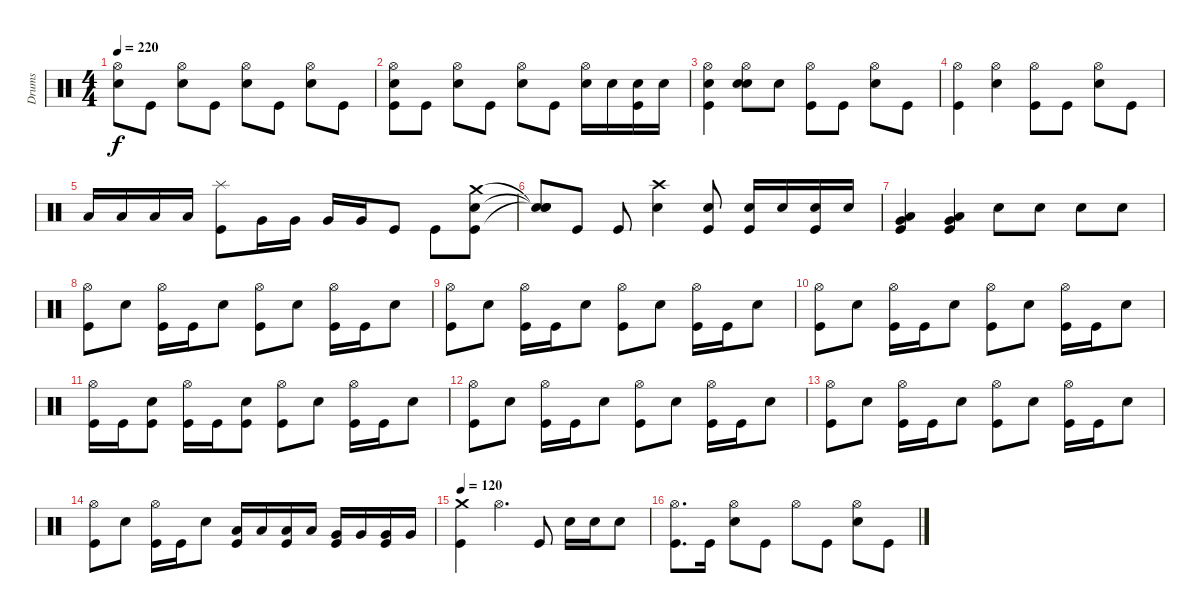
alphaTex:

\track ("Drums" "Drums") {instrument percussion}
\staff {score}
\articulation defaults
\ts (4 4)
\tempo 220
\clef neutral
\ks c
("Hi-Hat (open)" "Snare (hit) 2").8{dy f} "Kick (hit)".8 ("Hi-Hat (open)" "Snare (hit) 2").8 "Kick (hit)".8 ("Hi-Hat (open)" "Snare (hit) 2").8 "Kick (hit)".8 ("Hi-Hat (open)" "Snare (hit) 2").8 "Kick (hit)".8 |
("Hi-Hat (open)" "Snare (hit) 2" "Kick (hit)").8 "Kick (hit)".8 ("Hi-Hat (open)" "Snare (hit) 2").8 "Kick (hit)".8 ("Hi-Hat (open)" "Snare (hit) 2").8 "Kick (hit)".8 ("Hi-Hat (open)" "Snare (hit) 2").16 "Snare (hit) 2".16 ("Snare (hit) 2" "Kick (hit)").16 "Snare (hit) 2".16 |
("Hi-Hat (open)" "Hand Clap (hit)" "Kick (hit)").4 ("Hi-Hat (open)" "Snare (hit) 2" "Hand Clap (hit)").8 "Hand Clap (hit)".8 ("Hi-Hat (open)" "Kick (hit)").8 "Kick (hit)".8 ("Hi-Hat (open)" "Snare (hit) 2").8 "Kick (hit)".8 |
("Hi-Hat (open)" "Kick (hit)").4 ("Hi-Hat (open)" "Snare (hit) 2").4 ("Hi-Hat (open)" "Kick (hit)").8 "Kick (hit)".8 ("Hi-Hat (open)" "Snare (hit) 2").8 "Kick (hit)".8 |
"Low Tom (hit)".16 "Low Tom (hit)".16 "Low Tom (hit)".16 "Low Tom (hit)".16 ("Splash (hit)" "Kick (hit)").8 "Very Low Tom (hit)".16 "Very Low Tom (hit)".16 "Very Low Tom (hit)".16 "Very Low Tom (hit)".16 "Kick (hit)".8 "Kick (hit)".8 ("Crash medium (hit)" "Snare (hit) 2" "Kick (hit)").8 |
("Snare (hit)"{t} "Snare (hit)"{t} "Snare (hit)"{t}).8 "Kick (hit)".8 "Kick (hit)".8 ("Crash high (hit)" "Snare (hit) 2").4 ("Snare (hit) 2" "Kick (hit)").8 ("Snare (hit) 2" "Kick (hit)").16 "Snare (hit) 2".16 ("Snare (hit) 2" "Kick (hit)").16 "Snare (hit) 2".16 |
("Very Low Tom (hit)" "Low Floor Tom (hit)" "Kick (hit)").4 ("Very Low Tom (hit)" "Low Floor Tom (hit)" "Kick (hit)").4 "Snare (hit) 2".8 "Snare (hit) 2".8 "Snare (hit) 2".8 "Snare (hit) 2".8 |
("Hi-Hat (open)" "Kick (hit)").8 "Snare (hit) 2".8 ("Hi-Hat (open)" "Kick (hit)").16 "Kick (hit)".16 "Snare (hit) 2".8 ("Hi-Hat (open)" "Kick (hit)").8 "Snare (hit) 2".8 ("Hi-Hat (open)" "Kick (hit)").16 "Kick (hit)".16 "Snare (hit) 2".8 |
("Hi-Hat (open)" "Kick (hit)").8 "Snare (hit) 2".8 ("Hi-Hat (open)" "Kick (hit)").16 "Kick (hit)".16 "Snare (hit) 2".8 ("Hi-Hat (open)" "Kick (hit)").8 "Snare (hit) 2".8 ("Hi-Hat (open)" "Kick (hit)").16 "Kick (hit)".16 "Snare (hit) 2".8 |
("Hi-Hat (open)" "Kick (hit)").8 "Snare (hit) 2".8 ("Hi-Hat (open)" "Kick (hit)").16 "Kick (hit)".16 "Snare (hit) 2".8 ("Hi-Hat (open)" "Kick (hit)").8 "Snare (hit) 2".8 ("Hi-Hat (open)" "Kick (hit)").16 "Kick (hit)".16 "Snare (hit) 2".8 |
("Hi-Hat (open)" "Kick (hit)").16 "Kick (hit)".16 ("Snare (hit) 2" "Kick (hit)").8 ("Hi-Hat (open)" "Kick (hit)").16 "Kick (hit)".16 ("Snare (hit) 2" "Kick (hit)").8 ("Hi-Hat (open)" "Kick (hit)").8 "Snare (hit) 2".8 ("Hi-Hat (open)" "Kick (hit)").16 "Kick (hit)".16 "Snare (hit) 2".8 |
("Hi-Hat (open)" "Kick (hit)").8 "Snare (hit) 2".8 ("Hi-Hat (open)" "Kick (hit)").16 "Kick (hit)".16 "Snare (hit) 2".8 ("Hi-Hat (open)" "Kick (hit)").8 "Snare (hit) 2".8 ("Hi-Hat (open)" "Kick (hit)").16 "Kick (hit)".16 "Snare (hit) 2".8 |
("Hi-Hat (open)" "Kick (hit)").8 "Snare (hit) 2".8 ("Hi-Hat (open)" "Kick (hit)").16 "Kick (hit)".16 "Snare (hit) 2".8 ("Hi-Hat (open)" "Kick (hit)").8 "Snare (hit) 2".8 ("Hi-Hat (open)" "Kick (hit)").16 "Kick (hit)".16 "Snare (hit) 2".8 |
("Hi-Hat (open)" "Kick (hit)").8 "Snare (hit) 2".8 ("Hi-Hat (open)" "Kick (hit)").16 "Kick (hit)".16 "Snare (hit) 2".8 ("Low Tom (hit)" "Kick (hit)").16 "Low Tom (hit)".16 ("Low Tom (hit)" "Kick (hit)").16 "Low Tom (hit)".16 ("Very Low Tom (hit)" "Kick (hit)").16 "Very Low Tom (hit)".16 ("Very Low Tom (hit)" "Kick (hit)").16 "Very Low Tom (hit)".16 |
\tempo 120
("Crash medium (hit)" "Kick (hit)").4 "Hi-Hat (open)".4{d} "Kick (hit)".8 "Snare (hit) 2".16 "Snare (hit) 2".16 "Snare (hit) 2".8 |
("Hi-Hat (open)" "Kick (hit)").8{d} "Kick (hit)".16 ("Hi-Hat (open)" "Snare (hit) 2").8 "Kick (hit)".8 "Hi-Hat (open)".8 "Kick (hit)".8 ("Hi-Hat (open)" "Snare (hit) 2").8 "Kick (hit)".8
